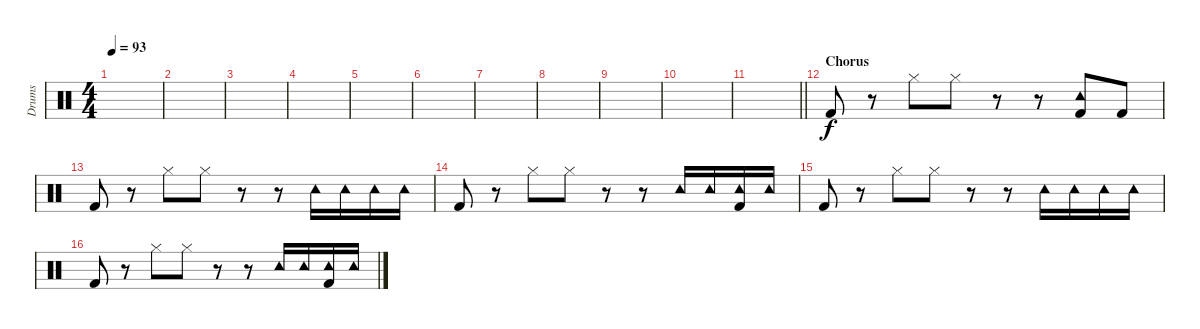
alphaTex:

\track ("Drums" "Drums") {instrument percussion}
\staff {score}
\articulation defaults
\ts (4 4)
\tempo 93
\clef neutral
\ks c
|
|
|
|
|
|
|
|
|
|
\barLineRight lightlight
|
\section ("" "Chorus")
"Kick (hit) 2".8 r.8 "Hi-Hat (closed)".8 "Hi-Hat (closed)".8 r.8 r.8 ("Tambourine (hit)" "Kick (hit) 2").8 "Kick (hit) 2".8 |
"Kick (hit) 2".8 r.8 "Hi-Hat (closed)".8 "Hi-Hat (closed)".8 r.8 r.8 "Tambourine (hit)".16 "Tambourine (hit)".16 "Tambourine (hit)".16 "Tambourine (hit)".16 |
"Kick (hit) 2".8 r.8 "Hi-Hat (closed)".8 "Hi-Hat (closed)".8 r.8 r.8 "Tambourine (hit)".16 "Tambourine (hit)".16 ("Tambourine (hit)" "Kick (hit) 2").16 "Tambourine (hit)".16 |
"Kick (hit) 2".8 r.8 "Hi-Hat (closed)".8 "Hi-Hat (closed)".8 r.8 r.8 "Tambourine (hit)".16 "Tambourine (hit)".16 "Tambourine (hit)".16 "Tambourine (hit)".16 |
"Kick (hit) 2".8 r.8 "Hi-Hat (closed)".8 "Hi-Hat (closed)".8 r.8 r.8 "Tambourine (hit)".16 "Tambourine (hit)".16 ("Tambourine (hit)" "Kick (hit) 2").16 "Tambourine (hit)".16
